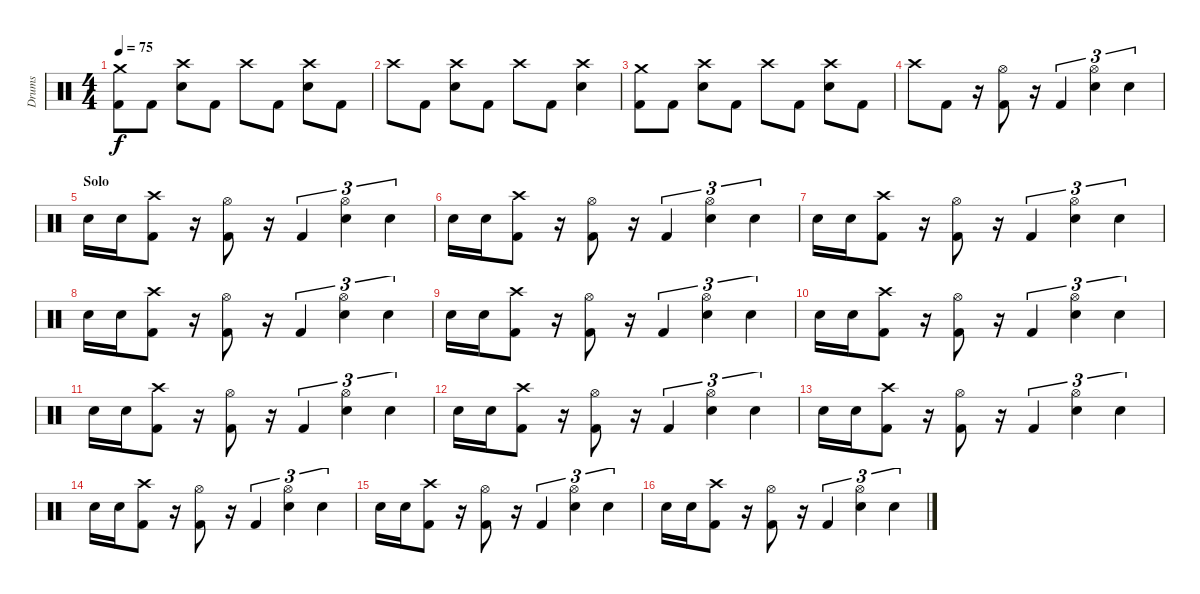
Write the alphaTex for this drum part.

\track ("Drums" "Drums") {instrument percussion}
\staff {score}
\articulation defaults
\ts (4 4)
\tempo 75
\clef neutral
\ks c
("Crash medium (hit)" "Kick (hit) 2").8{dy f} "Kick (hit) 2".8 ("Crash high (hit)" "Snare (hit) 2").8 "Kick (hit) 2".8 "Crash high (hit)".8 "Kick (hit) 2".8 ("Crash high (hit)" "Snare (hit) 2").8 "Kick (hit) 2".8 |
"Crash high (hit)".8 "Kick (hit) 2".8 ("Crash high (hit)" "Snare (hit) 2").8 "Kick (hit) 2".8 "Crash high (hit)".8 "Kick (hit) 2".8 ("Crash high (hit)" "Snare (hit) 2").4 |
("Crash medium (hit)" "Kick (hit) 2").8 "Kick (hit) 2".8 ("Crash high (hit)" "Snare (hit) 2").8 "Kick (hit) 2".8 "Crash high (hit)".8 "Kick (hit) 2".8 ("Crash high (hit)" "Snare (hit) 2").8 "Kick (hit) 2".8 |
"Crash high (hit)".8 "Kick (hit) 2".8 r.16 ("Hi-Hat (open)" "Kick (hit) 2").8 r.16 "Kick (hit) 2".4{tu (3 2)} ("Hi-Hat (open)" "Snare (hit) 2").4{tu (3 2)} "Snare (hit) 2".4{tu (3 2)} |
\section ("" "Solo")
"Snare (hit) 2".16 "Snare (hit) 2".16 ("Crash high (hit)" "Kick (hit) 2").8 r.16 ("Hi-Hat (open)" "Kick (hit) 2").8 r.16 "Kick (hit) 2".4{tu (3 2)} ("Hi-Hat (open)" "Snare (hit) 2").4{tu (3 2)} "Snare (hit) 2".4{tu (3 2)} |
"Snare (hit) 2".16 "Snare (hit) 2".16 ("Crash high (hit)" "Kick (hit) 2").8 r.16 ("Hi-Hat (open)" "Kick (hit) 2").8 r.16 "Kick (hit) 2".4{tu (3 2)} ("Hi-Hat (open)" "Snare (hit) 2").4{tu (3 2)} "Snare (hit) 2".4{tu (3 2)} |
"Snare (hit) 2".16 "Snare (hit) 2".16 ("Crash high (hit)" "Kick (hit) 2").8 r.16 ("Hi-Hat (open)" "Kick (hit) 2").8 r.16 "Kick (hit) 2".4{tu (3 2)} ("Hi-Hat (open)" "Snare (hit) 2").4{tu (3 2)} "Snare (hit) 2".4{tu (3 2)} |
"Snare (hit) 2".16 "Snare (hit) 2".16 ("Crash high (hit)" "Kick (hit) 2").8 r.16 ("Hi-Hat (open)" "Kick (hit) 2").8 r.16 "Kick (hit) 2".4{tu (3 2)} ("Hi-Hat (open)" "Snare (hit) 2").4{tu (3 2)} "Snare (hit) 2".4{tu (3 2)} |
"Snare (hit) 2".16 "Snare (hit) 2".16 ("Crash high (hit)" "Kick (hit) 2").8 r.16 ("Hi-Hat (open)" "Kick (hit) 2").8 r.16 "Kick (hit) 2".4{tu (3 2)} ("Hi-Hat (open)" "Snare (hit) 2").4{tu (3 2)} "Snare (hit) 2".4{tu (3 2)} |
"Snare (hit) 2".16 "Snare (hit) 2".16 ("Crash high (hit)" "Kick (hit) 2").8 r.16 ("Hi-Hat (open)" "Kick (hit) 2").8 r.16 "Kick (hit) 2".4{tu (3 2)} ("Hi-Hat (open)" "Snare (hit) 2").4{tu (3 2)} "Snare (hit) 2".4{tu (3 2)} |
"Snare (hit) 2".16 "Snare (hit) 2".16 ("Crash high (hit)" "Kick (hit) 2").8 r.16 ("Hi-Hat (open)" "Kick (hit) 2").8 r.16 "Kick (hit) 2".4{tu (3 2)} ("Hi-Hat (open)" "Snare (hit) 2").4{tu (3 2)} "Snare (hit) 2".4{tu (3 2)} |
"Snare (hit) 2".16 "Snare (hit) 2".16 ("Crash high (hit)" "Kick (hit) 2").8 r.16 ("Hi-Hat (open)" "Kick (hit) 2").8 r.16 "Kick (hit) 2".4{tu (3 2)} ("Hi-Hat (open)" "Snare (hit) 2").4{tu (3 2)} "Snare (hit) 2".4{tu (3 2)} |
"Snare (hit) 2".16 "Snare (hit) 2".16 ("Crash high (hit)" "Kick (hit) 2").8 r.16 ("Hi-Hat (open)" "Kick (hit) 2").8 r.16 "Kick (hit) 2".4{tu (3 2)} ("Hi-Hat (open)" "Snare (hit) 2").4{tu (3 2)} "Snare (hit) 2".4{tu (3 2)} |
"Snare (hit) 2".16 "Snare (hit) 2".16 ("Crash high (hit)" "Kick (hit) 2").8 r.16 ("Hi-Hat (open)" "Kick (hit) 2").8 r.16 "Kick (hit) 2".4{tu (3 2)} ("Hi-Hat (open)" "Snare (hit) 2").4{tu (3 2)} "Snare (hit) 2".4{tu (3 2)} |
"Snare (hit) 2".16 "Snare (hit) 2".16 ("Crash high (hit)" "Kick (hit) 2").8 r.16 ("Hi-Hat (open)" "Kick (hit) 2").8 r.16 "Kick (hit) 2".4{tu (3 2)} ("Hi-Hat (open)" "Snare (hit) 2").4{tu (3 2)} "Snare (hit) 2".4{tu (3 2)} |
"Snare (hit) 2".16 "Snare (hit) 2".16 ("Crash high (hit)" "Kick (hit) 2").8 r.16 ("Hi-Hat (open)" "Kick (hit) 2").8 r.16 "Kick (hit) 2".4{tu (3 2)} ("Hi-Hat (open)" "Snare (hit) 2").4{tu (3 2)} "Snare (hit) 2".4{tu (3 2)}
